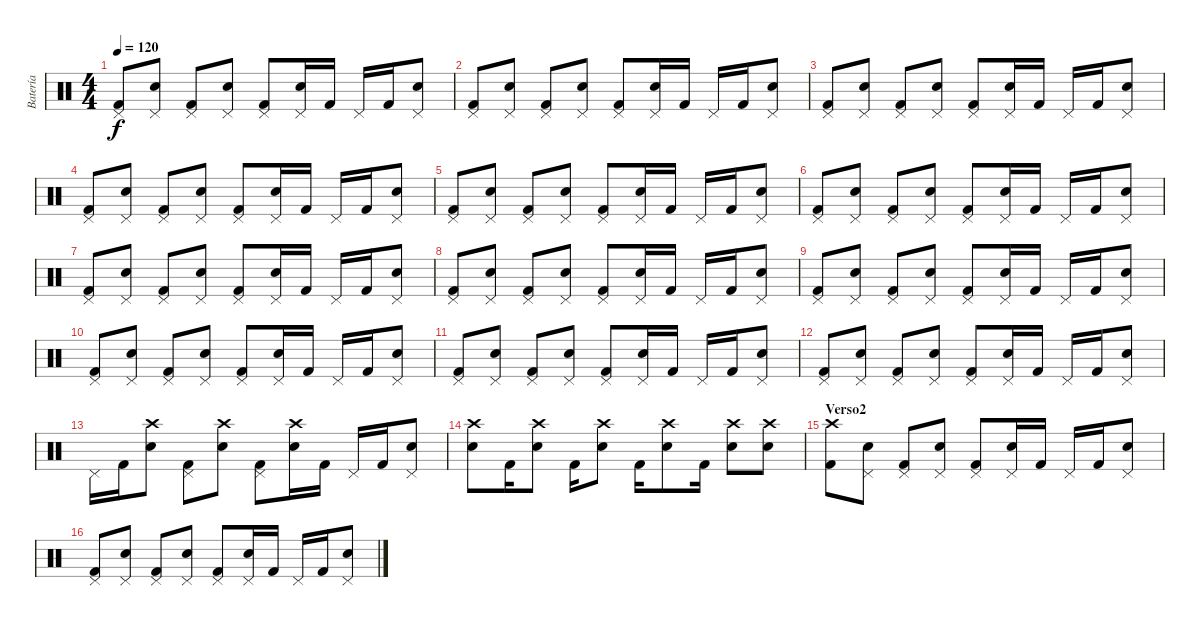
\track ("Batería" "Batería") {instrument percussion}
\staff {score}
\articulation defaults
\ts (4 4)
\tempo 120
\clef neutral
\ks c
("Pedal Hi-Hat (hit)" "Kick (hit) 2").8{dy f} ("Pedal Hi-Hat (hit)" "Snare (hit) 2").8 ("Pedal Hi-Hat (hit)" "Kick (hit) 2").8 ("Pedal Hi-Hat (hit)" "Snare (hit) 2").8 ("Pedal Hi-Hat (hit)" "Kick (hit) 2").8 ("Pedal Hi-Hat (hit)" "Snare (hit) 2").16 "Kick (hit) 2".16 "Pedal Hi-Hat (hit)".16 "Kick (hit) 2".16 ("Pedal Hi-Hat (hit)" "Snare (hit) 2").8 |
("Pedal Hi-Hat (hit)" "Kick (hit) 2").8 ("Pedal Hi-Hat (hit)" "Snare (hit) 2").8 ("Pedal Hi-Hat (hit)" "Kick (hit) 2").8 ("Pedal Hi-Hat (hit)" "Snare (hit) 2").8 ("Pedal Hi-Hat (hit)" "Kick (hit) 2").8 ("Pedal Hi-Hat (hit)" "Snare (hit) 2").16 "Kick (hit) 2".16 "Pedal Hi-Hat (hit)".16 "Kick (hit) 2".16 ("Pedal Hi-Hat (hit)" "Snare (hit) 2").8 |
("Pedal Hi-Hat (hit)" "Kick (hit) 2").8 ("Pedal Hi-Hat (hit)" "Snare (hit) 2").8 ("Pedal Hi-Hat (hit)" "Kick (hit) 2").8 ("Pedal Hi-Hat (hit)" "Snare (hit) 2").8 ("Pedal Hi-Hat (hit)" "Kick (hit) 2").8 ("Pedal Hi-Hat (hit)" "Snare (hit) 2").16 "Kick (hit) 2".16 "Pedal Hi-Hat (hit)".16 "Kick (hit) 2".16 ("Pedal Hi-Hat (hit)" "Snare (hit) 2").8 |
("Pedal Hi-Hat (hit)" "Kick (hit) 2").8 ("Pedal Hi-Hat (hit)" "Snare (hit) 2").8 ("Pedal Hi-Hat (hit)" "Kick (hit) 2").8 ("Pedal Hi-Hat (hit)" "Snare (hit) 2").8 ("Pedal Hi-Hat (hit)" "Kick (hit) 2").8 ("Pedal Hi-Hat (hit)" "Snare (hit) 2").16 "Kick (hit) 2".16 "Pedal Hi-Hat (hit)".16 "Kick (hit) 2".16 ("Pedal Hi-Hat (hit)" "Snare (hit) 2").8 |
("Pedal Hi-Hat (hit)" "Kick (hit) 2").8 ("Pedal Hi-Hat (hit)" "Snare (hit) 2").8 ("Pedal Hi-Hat (hit)" "Kick (hit) 2").8 ("Pedal Hi-Hat (hit)" "Snare (hit) 2").8 ("Pedal Hi-Hat (hit)" "Kick (hit) 2").8 ("Pedal Hi-Hat (hit)" "Snare (hit) 2").16 "Kick (hit) 2".16 "Pedal Hi-Hat (hit)".16 "Kick (hit) 2".16 ("Pedal Hi-Hat (hit)" "Snare (hit) 2").8 |
("Pedal Hi-Hat (hit)" "Kick (hit) 2").8 ("Pedal Hi-Hat (hit)" "Snare (hit) 2").8 ("Pedal Hi-Hat (hit)" "Kick (hit) 2").8 ("Pedal Hi-Hat (hit)" "Snare (hit) 2").8 ("Pedal Hi-Hat (hit)" "Kick (hit) 2").8 ("Pedal Hi-Hat (hit)" "Snare (hit) 2").16 "Kick (hit) 2".16 "Pedal Hi-Hat (hit)".16 "Kick (hit) 2".16 ("Pedal Hi-Hat (hit)" "Snare (hit) 2").8 |
("Pedal Hi-Hat (hit)" "Kick (hit) 2").8 ("Pedal Hi-Hat (hit)" "Snare (hit) 2").8 ("Pedal Hi-Hat (hit)" "Kick (hit) 2").8 ("Pedal Hi-Hat (hit)" "Snare (hit) 2").8 ("Pedal Hi-Hat (hit)" "Kick (hit) 2").8 ("Pedal Hi-Hat (hit)" "Snare (hit) 2").16 "Kick (hit) 2".16 "Pedal Hi-Hat (hit)".16 "Kick (hit) 2".16 ("Pedal Hi-Hat (hit)" "Snare (hit) 2").8 |
("Pedal Hi-Hat (hit)" "Kick (hit) 2").8 ("Pedal Hi-Hat (hit)" "Snare (hit) 2").8 ("Pedal Hi-Hat (hit)" "Kick (hit) 2").8 ("Pedal Hi-Hat (hit)" "Snare (hit) 2").8 ("Pedal Hi-Hat (hit)" "Kick (hit) 2").8 ("Pedal Hi-Hat (hit)" "Snare (hit) 2").16 "Kick (hit) 2".16 "Pedal Hi-Hat (hit)".16 "Kick (hit) 2".16 ("Pedal Hi-Hat (hit)" "Snare (hit) 2").8 |
("Pedal Hi-Hat (hit)" "Kick (hit) 2").8 ("Pedal Hi-Hat (hit)" "Snare (hit) 2").8 ("Pedal Hi-Hat (hit)" "Kick (hit) 2").8 ("Pedal Hi-Hat (hit)" "Snare (hit) 2").8 ("Pedal Hi-Hat (hit)" "Kick (hit) 2").8 ("Pedal Hi-Hat (hit)" "Snare (hit) 2").16 "Kick (hit) 2".16 "Pedal Hi-Hat (hit)".16 "Kick (hit) 2".16 ("Pedal Hi-Hat (hit)" "Snare (hit) 2").8 |
("Pedal Hi-Hat (hit)" "Kick (hit) 2").8 ("Pedal Hi-Hat (hit)" "Snare (hit) 2").8 ("Pedal Hi-Hat (hit)" "Kick (hit) 2").8 ("Pedal Hi-Hat (hit)" "Snare (hit) 2").8 ("Pedal Hi-Hat (hit)" "Kick (hit) 2").8 ("Pedal Hi-Hat (hit)" "Snare (hit) 2").16 "Kick (hit) 2".16 "Pedal Hi-Hat (hit)".16 "Kick (hit) 2".16 ("Pedal Hi-Hat (hit)" "Snare (hit) 2").8 |
("Pedal Hi-Hat (hit)" "Kick (hit) 2").8 ("Pedal Hi-Hat (hit)" "Snare (hit) 2").8 ("Pedal Hi-Hat (hit)" "Kick (hit) 2").8 ("Pedal Hi-Hat (hit)" "Snare (hit) 2").8 ("Pedal Hi-Hat (hit)" "Kick (hit) 2").8 ("Pedal Hi-Hat (hit)" "Snare (hit) 2").16 "Kick (hit) 2".16 "Pedal Hi-Hat (hit)".16 "Kick (hit) 2".16 ("Pedal Hi-Hat (hit)" "Snare (hit) 2").8 |
("Pedal Hi-Hat (hit)" "Kick (hit) 2").8 ("Pedal Hi-Hat (hit)" "Snare (hit) 2").8 ("Pedal Hi-Hat (hit)" "Kick (hit) 2").8 ("Pedal Hi-Hat (hit)" "Snare (hit) 2").8 ("Pedal Hi-Hat (hit)" "Kick (hit) 2").8 ("Pedal Hi-Hat (hit)" "Snare (hit) 2").16 "Kick (hit) 2".16 "Pedal Hi-Hat (hit)".16 "Kick (hit) 2".16 ("Pedal Hi-Hat (hit)" "Snare (hit) 2").8 |
"Pedal Hi-Hat (hit)".16 "Kick (hit) 2".16 ("Crash high (hit)" "Snare (hit) 2").8 ("Pedal Hi-Hat (hit)" "Kick (hit) 2").8 ("Crash high (hit)" "Snare (hit) 2").8 ("Pedal Hi-Hat (hit)" "Kick (hit) 2").8 ("Crash high (hit)" "Snare (hit) 2").16 "Kick (hit) 2".16 "Pedal Hi-Hat (hit)".16 "Kick (hit) 2".16 ("Pedal Hi-Hat (hit)" "Snare (hit) 2").8 |
("Crash high (hit)" "Snare (hit) 2").8 "Kick (hit) 2".16 ("Crash high (hit)" "Snare (hit) 2").8 "Kick (hit) 2".16 ("Crash high (hit)" "Snare (hit) 2").8 "Kick (hit) 2".16 ("Crash high (hit)" "Snare (hit) 2").8 "Kick (hit) 2".16 ("Crash high (hit)" "Snare (hit) 2").8 ("Crash high (hit)" "Snare (hit) 2").8 |
\section ("" "Verso2")
("Crash high (hit)" "Kick (hit) 2").8 ("Pedal Hi-Hat (hit)" "Snare (hit) 2").8 ("Pedal Hi-Hat (hit)" "Kick (hit) 2").8 ("Pedal Hi-Hat (hit)" "Snare (hit) 2").8 ("Pedal Hi-Hat (hit)" "Kick (hit) 2").8 ("Pedal Hi-Hat (hit)" "Snare (hit) 2").16 "Kick (hit) 2".16 "Pedal Hi-Hat (hit)".16 "Kick (hit) 2".16 ("Pedal Hi-Hat (hit)" "Snare (hit) 2").8 |
("Pedal Hi-Hat (hit)" "Kick (hit) 2").8 ("Pedal Hi-Hat (hit)" "Snare (hit) 2").8 ("Pedal Hi-Hat (hit)" "Kick (hit) 2").8 ("Pedal Hi-Hat (hit)" "Snare (hit) 2").8 ("Pedal Hi-Hat (hit)" "Kick (hit) 2").8 ("Pedal Hi-Hat (hit)" "Snare (hit) 2").16 "Kick (hit) 2".16 "Pedal Hi-Hat (hit)".16 "Kick (hit) 2".16 ("Pedal Hi-Hat (hit)" "Snare (hit) 2").8
